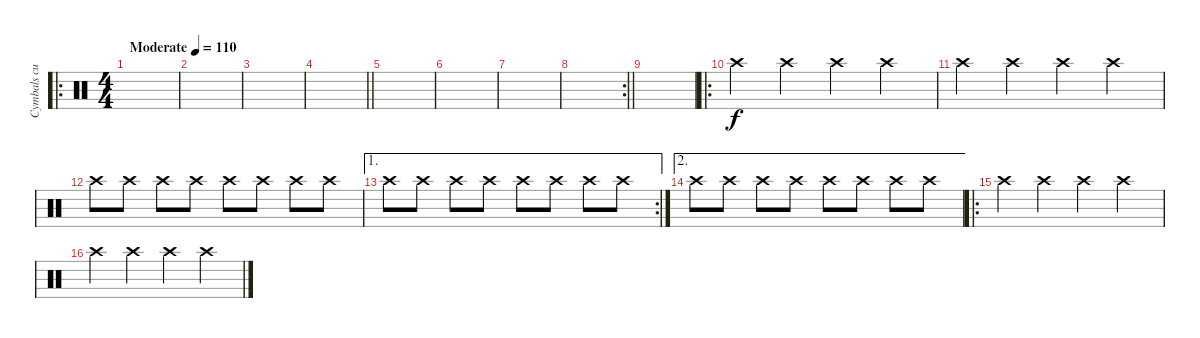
\track ("Cymbals cuz I'm lazy" "Cymbals cu") {instrument percussion}
\staff {score}
\articulation defaults
\ro
\ts (4 4)
\tempo (110 "Moderate")
\clef neutral
\ks c
|
|
|
\barLineRight lightlight
|
|
|
|
\rc 2
\barLineRight lightlight
|
|
\ro "Crash high (hit)".4 "Crash high (hit)".4 "Crash high (hit)".4 "Crash high (hit)".4
|
"Crash high (hit)".4 "Crash high (hit)".4 "Crash high (hit)".4 "Crash high (hit)".4 |
"Crash high (hit)".8 "Crash high (hit)".8 "Crash high (hit)".8 "Crash high (hit)".8 "Crash high (hit)".8 "Crash high (hit)".8 "Crash high (hit)".8 "Crash high (hit)".8 |
\ae 1
\rc 2 "Crash high (hit)".8 "Crash high (hit)".8 "Crash high (hit)".8 "Crash high (hit)".8 "Crash high (hit)".8 "Crash high (hit)".8 "Crash high (hit)".8 "Crash high (hit)".8
|
\ae 2 "Crash high (hit)".8 "Crash high (hit)".8 "Crash high (hit)".8 "Crash high (hit)".8 "Crash high (hit)".8 "Crash high (hit)".8 "Crash high (hit)".8 "Crash high (hit)".8
|
\ro "Crash high (hit)".4 "Crash high (hit)".4 "Crash high (hit)".4 "Crash high (hit)".4
|
"Crash high (hit)".4 "Crash high (hit)".4 "Crash high (hit)".4 "Crash high (hit)".4
